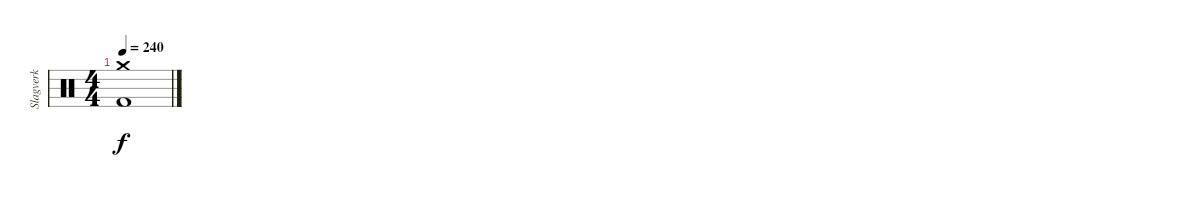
\track ("Slagverk" "Slagverk") {instrument percussion}
\staff {score}
\articulation defaults
\ts (4 4)
\tempo 240
\clef neutral
\ks c
("Crash medium (hit)" "Kick (hit) 2").1{dy f}
